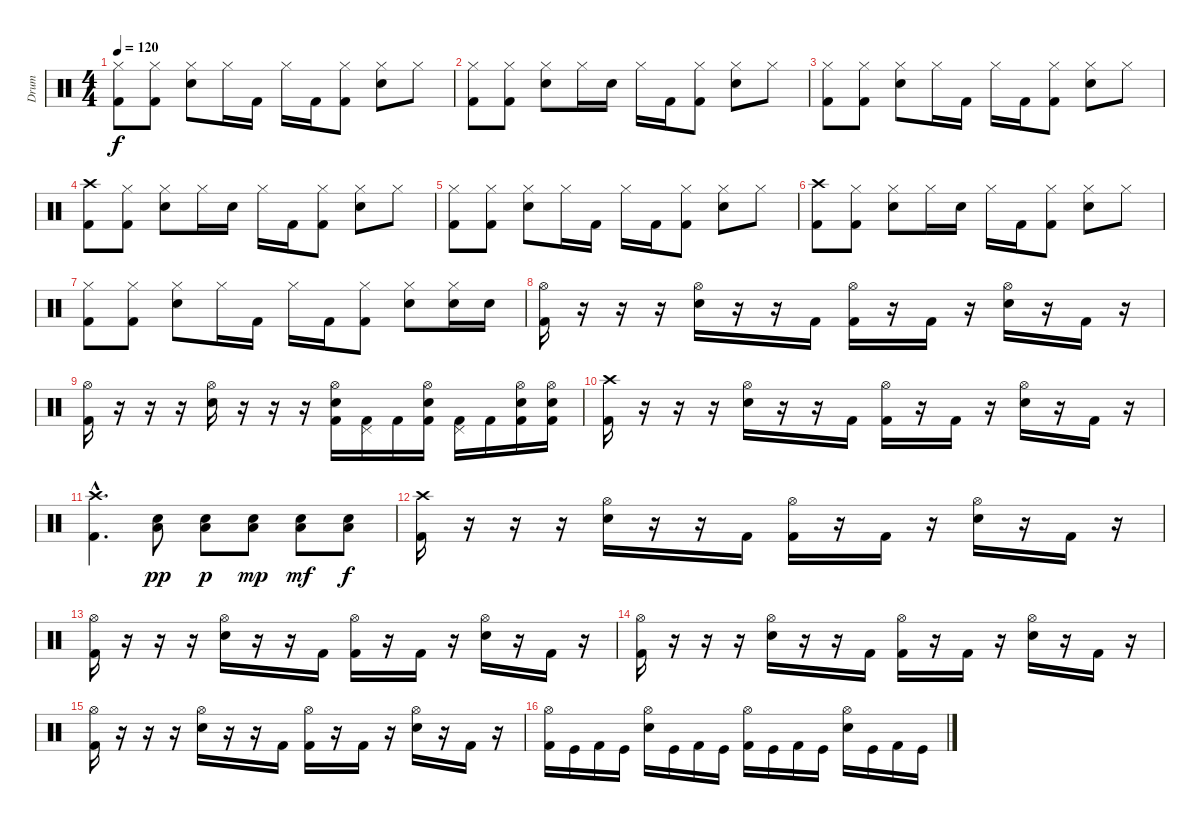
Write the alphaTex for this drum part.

\track ("Drum" "Drum") {instrument percussion}
\staff {score}
\articulation defaults
\ts (4 4)
\tempo 120
\clef neutral
\ks c
("Hi-Hat (closed)" "Kick (hit) 2").8{dy f} ("Hi-Hat (closed)" "Kick (hit) 2").8 ("Hi-Hat (closed)" "Metronome (bell)").8 "Hi-Hat (closed)".16 "Kick (hit) 2".16 "Hi-Hat (closed)".16 "Kick (hit) 2".16 ("Hi-Hat (closed)" "Kick (hit) 2").8 ("Hi-Hat (closed)" "Metronome (bell)").8 "Hi-Hat (closed)".8 |
("Hi-Hat (closed)" "Kick (hit) 2").8 ("Hi-Hat (closed)" "Kick (hit) 2").8 ("Hi-Hat (closed)" "Metronome (bell)").8 "Hi-Hat (closed)".16 "Metronome (bell)".16 "Hi-Hat (closed)".16 "Kick (hit) 2".16 ("Hi-Hat (closed)" "Kick (hit) 2").8 ("Hi-Hat (closed)" "Metronome (bell)").8 "Hi-Hat (closed)".8 |
("Hi-Hat (closed)" "Kick (hit) 2").8 ("Hi-Hat (closed)" "Kick (hit) 2").8 ("Hi-Hat (closed)" "Metronome (bell)").8 "Hi-Hat (closed)".16 "Kick (hit) 2".16 "Hi-Hat (closed)".16 "Kick (hit) 2".16 ("Hi-Hat (closed)" "Kick (hit) 2").8 ("Hi-Hat (closed)" "Metronome (bell)").8 "Hi-Hat (closed)".8 |
("Crash high (hit)" "Kick (hit) 2").8 ("Hi-Hat (closed)" "Kick (hit) 2").8 ("Hi-Hat (closed)" "Metronome (bell)").8 "Hi-Hat (closed)".16 "Metronome (bell)".16 "Hi-Hat (closed)".16 "Kick (hit) 2".16 ("Hi-Hat (closed)" "Kick (hit) 2").8 ("Hi-Hat (closed)" "Metronome (bell)").8 "Hi-Hat (closed)".8 |
("Hi-Hat (closed)" "Kick (hit) 2").8 ("Hi-Hat (closed)" "Kick (hit) 2").8 ("Hi-Hat (closed)" "Metronome (bell)").8 "Hi-Hat (closed)".16 "Kick (hit) 2".16 "Hi-Hat (closed)".16 "Kick (hit) 2".16 ("Hi-Hat (closed)" "Kick (hit) 2").8 ("Hi-Hat (closed)" "Metronome (bell)").8 "Hi-Hat (closed)".8 |
("Crash high (hit)" "Kick (hit) 2").8 ("Hi-Hat (closed)" "Kick (hit) 2").8 ("Hi-Hat (closed)" "Metronome (bell)").8 "Hi-Hat (closed)".16 "Metronome (bell)".16 "Hi-Hat (closed)".16 "Kick (hit) 2".16 ("Hi-Hat (closed)" "Kick (hit) 2").8 ("Hi-Hat (closed)" "Metronome (bell)").8 "Hi-Hat (closed)".8 |
("Hi-Hat (closed)" "Kick (hit) 2").8 ("Hi-Hat (closed)" "Kick (hit) 2").8 ("Hi-Hat (closed)" "Metronome (bell)").8 "Hi-Hat (closed)".16 "Kick (hit) 2".16 "Hi-Hat (closed)".16 "Kick (hit) 2".16 ("Hi-Hat (closed)" "Kick (hit) 2").8 ("Hi-Hat (closed)" "Metronome (bell)").8 ("Hi-Hat (closed)" "Electric Snare (hit)").16 "Electric Snare (hit)".16 |
("Hi-Hat (open)" "Kick (hit) 2").16 r.16 r.16 r.16 ("Hi-Hat (open)" "Electric Snare (hit)").16 r.16 r.16 "Kick (hit) 2".16 ("Hi-Hat (open)" "Kick (hit) 2").16 r.16 "Kick (hit) 2".16 r.16 ("Hi-Hat (open)" "Electric Snare (hit)").16 r.16 "Kick (hit) 2".16 r.16 |
("Hi-Hat (open)" "Kick (hit) 2").16 r.16 r.16 r.16 ("Hi-Hat (open)" "Electric Snare (hit)").16 r.16 r.16 r.16 ("Electric Snare (hit)" "Kick (hit) 2" "Hi-Hat (open)").16 ("Kick (hit) 2" "Pedal Hi-Hat (hit)").16 "Kick (hit) 2".16 ("Electric Snare (hit)" "Kick (hit) 2" "Hi-Hat (open)").16 ("Kick (hit) 2" "Pedal Hi-Hat (hit)").16 "Kick (hit) 2".16 ("Electric Snare (hit)" "Kick (hit) 2" "Hi-Hat (open)").16 ("Electric Snare (hit)" "Kick (hit) 2" "Hi-Hat (open)").16 |
("Crash high (hit)" "Kick (hit) 2").16 r.16 r.16 r.16 ("Hi-Hat (open)" "Electric Snare (hit)").16 r.16 r.16 "Kick (hit) 2".16 ("Hi-Hat (open)" "Kick (hit) 2").16 r.16 "Kick (hit) 2".16 r.16 ("Hi-Hat (open)" "Electric Snare (hit)").16 r.16 "Kick (hit) 2".16 r.16 |
("Crash high (hit)"{hac} "Kick (hit) 2"{hac}).4{d} ("Electric Snare (hit)" "Low Floor Tom (hit)").8{dy pp} ("Electric Snare (hit)" "Low Floor Tom (hit)").8{dy p} ("Electric Snare (hit)" "Low Floor Tom (hit)").8{dy mp} ("Electric Snare (hit)" "Low Floor Tom (hit)").8{dy mf} ("Electric Snare (hit)" "Low Floor Tom (hit)").8{dy f} |
("Crash high (hit)" "Kick (hit) 2").16 r.16 r.16 r.16 ("Hi-Hat (open)" "Electric Snare (hit)").16 r.16 r.16 "Kick (hit) 2".16 ("Hi-Hat (open)" "Kick (hit) 2").16 r.16 "Kick (hit) 2".16 r.16 ("Hi-Hat (open)" "Electric Snare (hit)").16 r.16 "Kick (hit) 2".16 r.16 |
("Hi-Hat (open)" "Kick (hit) 2").16 r.16 r.16 r.16 ("Hi-Hat (open)" "Electric Snare (hit)").16 r.16 r.16 "Kick (hit) 2".16 ("Hi-Hat (open)" "Kick (hit) 2").16 r.16 "Kick (hit) 2".16 r.16 ("Hi-Hat (open)" "Electric Snare (hit)").16 r.16 "Kick (hit) 2".16 r.16 |
("Hi-Hat (open)" "Kick (hit) 2").16 r.16 r.16 r.16 ("Hi-Hat (open)" "Electric Snare (hit)").16 r.16 r.16 "Kick (hit) 2".16 ("Hi-Hat (open)" "Kick (hit) 2").16 r.16 "Kick (hit) 2".16 r.16 ("Hi-Hat (open)" "Electric Snare (hit)").16 r.16 "Kick (hit) 2".16 r.16 |
("Hi-Hat (open)" "Kick (hit) 2").16 r.16 r.16 r.16 ("Hi-Hat (open)" "Electric Snare (hit)").16 r.16 r.16 "Kick (hit) 2".16 ("Hi-Hat (open)" "Kick (hit) 2").16 r.16 "Kick (hit) 2".16 r.16 ("Hi-Hat (open)" "Electric Snare (hit)").16 r.16 "Kick (hit) 2".16 r.16 |
("Hi-Hat (open)" "Kick (hit) 2").16 "Kick (hit)".16 "Kick (hit) 2".16 "Kick (hit)".16 ("Hi-Hat (open)" "Electric Snare (hit)").16 "Kick (hit)".16 "Kick (hit) 2".16 "Kick (hit)".16 ("Hi-Hat (open)" "Kick (hit) 2").16 "Kick (hit)".16 "Kick (hit) 2".16 "Kick (hit)".16 ("Hi-Hat (open)" "Electric Snare (hit)").16 "Kick (hit)".16 "Kick (hit) 2".16 "Kick (hit)".16
